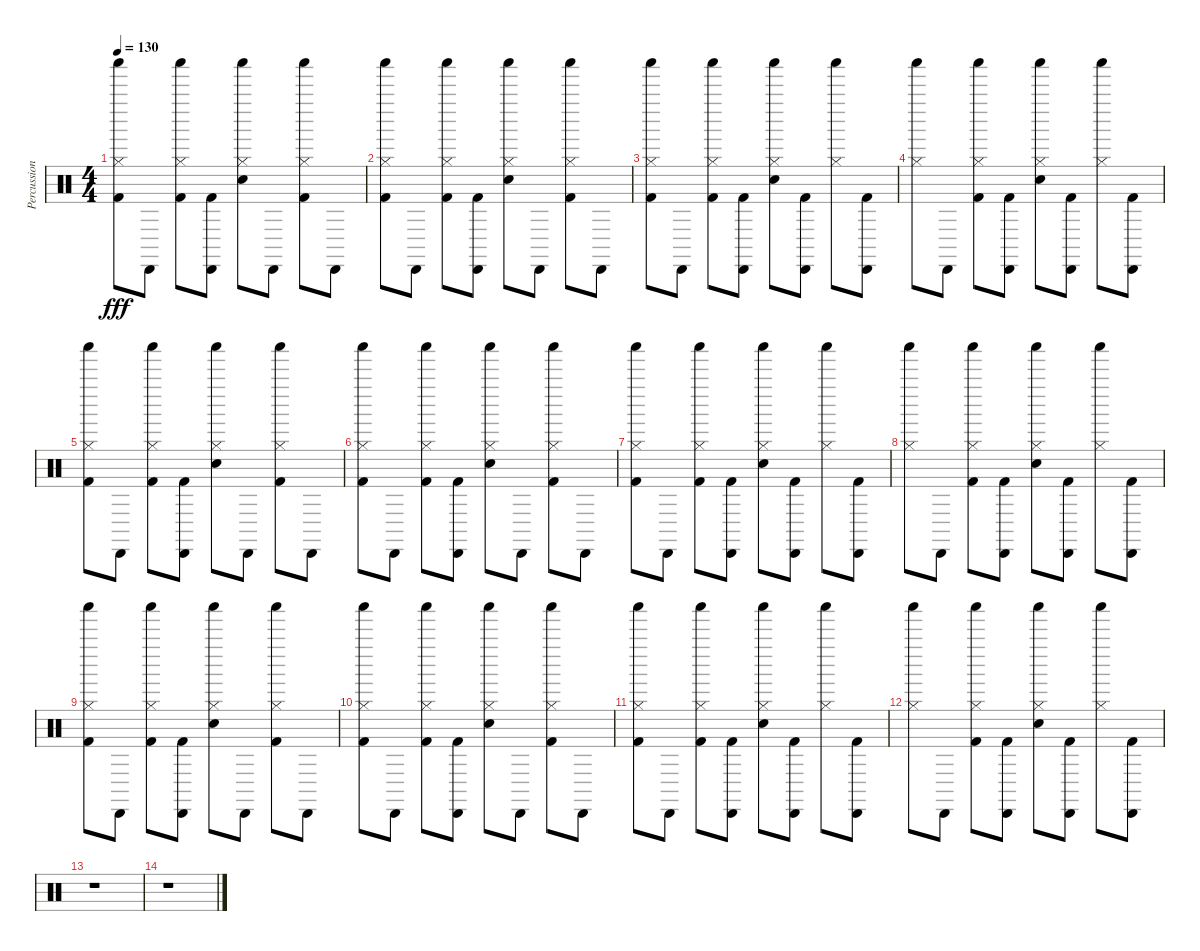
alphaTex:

\track ("Percussion" "Percussion") {instrument percussion}
\staff {score}
\articulation defaults
\ts (4 4)
\tempo 130
\clef neutral
\ks c
("Shaker (hit)" "Hi-Hat (closed)" "Kick (hit) 2").8{dy fff} "Cabasa (hit)".8 ("Shaker (hit)" "Hi-Hat (closed)" "Kick (hit) 2").8 ("Cabasa (hit)" "Kick (hit) 2").8 ("Shaker (hit)" "Hi-Hat (closed)" "Snare (hit) 2").8 "Cabasa (hit)".8 ("Shaker (hit)" "Hi-Hat (closed)" "Kick (hit) 2").8 "Cabasa (hit)".8 |
("Shaker (hit)" "Hi-Hat (closed)" "Kick (hit) 2").8 "Cabasa (hit)".8 ("Shaker (hit)" "Hi-Hat (closed)" "Kick (hit) 2").8 ("Cabasa (hit)" "Kick (hit) 2").8 ("Shaker (hit)" "Hi-Hat (closed)" "Snare (hit) 2").8 "Cabasa (hit)".8 ("Shaker (hit)" "Hi-Hat (closed)" "Kick (hit) 2").8 "Cabasa (hit)".8 |
("Shaker (hit)" "Hi-Hat (closed)" "Kick (hit) 2").8 "Cabasa (hit)".8 ("Shaker (hit)" "Hi-Hat (closed)" "Kick (hit) 2").8 ("Cabasa (hit)" "Kick (hit) 2").8 ("Shaker (hit)" "Hi-Hat (closed)" "Snare (hit) 2").8 ("Cabasa (hit)" "Kick (hit) 2").8 ("Shaker (hit)" "Hi-Hat (closed)").8 ("Cabasa (hit)" "Kick (hit) 2").8 |
("Shaker (hit)" "Hi-Hat (closed)").8 "Cabasa (hit)".8 ("Shaker (hit)" "Hi-Hat (closed)" "Kick (hit) 2").8 ("Cabasa (hit)" "Kick (hit) 2").8 ("Shaker (hit)" "Hi-Hat (closed)" "Snare (hit) 2").8 ("Cabasa (hit)" "Kick (hit) 2").8 ("Shaker (hit)" "Hi-Hat (closed)").8 ("Cabasa (hit)" "Kick (hit) 2").8 |
("Shaker (hit)" "Hi-Hat (closed)" "Kick (hit) 2").8 "Cabasa (hit)".8 ("Shaker (hit)" "Hi-Hat (closed)" "Kick (hit) 2").8 ("Cabasa (hit)" "Kick (hit) 2").8 ("Shaker (hit)" "Hi-Hat (closed)" "Snare (hit) 2").8 "Cabasa (hit)".8 ("Shaker (hit)" "Hi-Hat (closed)" "Kick (hit) 2").8 "Cabasa (hit)".8 |
("Shaker (hit)" "Hi-Hat (closed)" "Kick (hit) 2").8 "Cabasa (hit)".8 ("Shaker (hit)" "Hi-Hat (closed)" "Kick (hit) 2").8 ("Cabasa (hit)" "Kick (hit) 2").8 ("Shaker (hit)" "Hi-Hat (closed)" "Snare (hit) 2").8 "Cabasa (hit)".8 ("Shaker (hit)" "Hi-Hat (closed)" "Kick (hit) 2").8 "Cabasa (hit)".8 |
("Shaker (hit)" "Hi-Hat (closed)" "Kick (hit) 2").8 "Cabasa (hit)".8 ("Shaker (hit)" "Hi-Hat (closed)" "Kick (hit) 2").8 ("Cabasa (hit)" "Kick (hit) 2").8 ("Shaker (hit)" "Hi-Hat (closed)" "Snare (hit) 2").8 ("Cabasa (hit)" "Kick (hit) 2").8 ("Shaker (hit)" "Hi-Hat (closed)").8 ("Cabasa (hit)" "Kick (hit) 2").8 |
("Shaker (hit)" "Hi-Hat (closed)").8 "Cabasa (hit)".8 ("Shaker (hit)" "Hi-Hat (closed)" "Kick (hit) 2").8 ("Cabasa (hit)" "Kick (hit) 2").8 ("Shaker (hit)" "Hi-Hat (closed)" "Snare (hit) 2").8 ("Cabasa (hit)" "Kick (hit) 2").8 ("Shaker (hit)" "Hi-Hat (closed)").8 ("Cabasa (hit)" "Kick (hit) 2").8 |
("Shaker (hit)" "Hi-Hat (closed)" "Kick (hit) 2").8 "Cabasa (hit)".8 ("Shaker (hit)" "Hi-Hat (closed)" "Kick (hit) 2").8 ("Cabasa (hit)" "Kick (hit) 2").8 ("Shaker (hit)" "Hi-Hat (closed)" "Snare (hit) 2").8 "Cabasa (hit)".8 ("Shaker (hit)" "Hi-Hat (closed)" "Kick (hit) 2").8 "Cabasa (hit)".8 |
("Shaker (hit)" "Hi-Hat (closed)" "Kick (hit) 2").8 "Cabasa (hit)".8 ("Shaker (hit)" "Hi-Hat (closed)" "Kick (hit) 2").8 ("Cabasa (hit)" "Kick (hit) 2").8 ("Shaker (hit)" "Hi-Hat (closed)" "Snare (hit) 2").8 "Cabasa (hit)".8 ("Shaker (hit)" "Hi-Hat (closed)" "Kick (hit) 2").8 "Cabasa (hit)".8 |
("Shaker (hit)" "Hi-Hat (closed)" "Kick (hit) 2").8 "Cabasa (hit)".8 ("Shaker (hit)" "Hi-Hat (closed)" "Kick (hit) 2").8 ("Cabasa (hit)" "Kick (hit) 2").8 ("Shaker (hit)" "Hi-Hat (closed)" "Snare (hit) 2").8 ("Cabasa (hit)" "Kick (hit) 2").8 ("Shaker (hit)" "Hi-Hat (closed)").8 ("Cabasa (hit)" "Kick (hit) 2").8 |
("Shaker (hit)" "Hi-Hat (closed)").8 "Cabasa (hit)".8 ("Shaker (hit)" "Hi-Hat (closed)" "Kick (hit) 2").8 ("Cabasa (hit)" "Kick (hit) 2").8 ("Shaker (hit)" "Hi-Hat (closed)" "Snare (hit) 2").8 ("Cabasa (hit)" "Kick (hit) 2").8 ("Shaker (hit)" "Hi-Hat (closed)").8 ("Cabasa (hit)" "Kick (hit) 2").8 |
r.1 |
r.1
